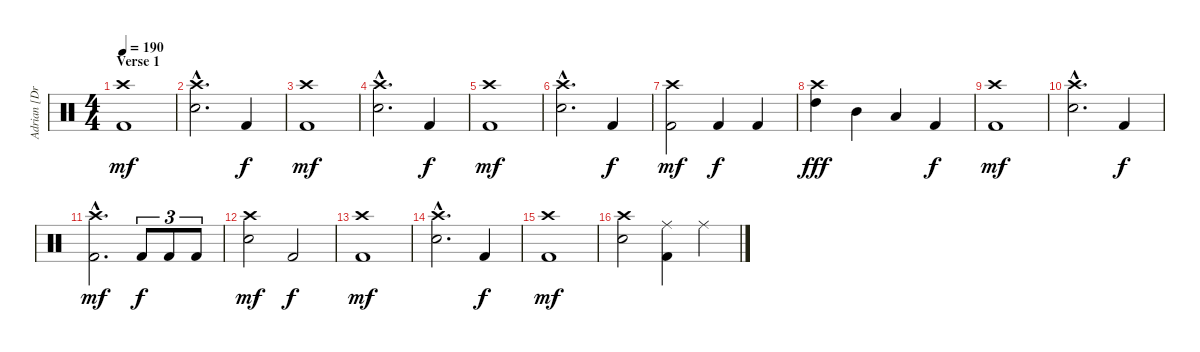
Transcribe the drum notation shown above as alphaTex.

\track ("Adrian [Drums]" "Adrian [Dr") {instrument percussion}
\staff {score}
\articulation defaults
\ts (4 4)
\section ("" "Verse 1")
\tempo 190
\clef neutral
\ks c
("Crash high (hit)" "Kick (hit) 2").1{dy mf} |
("Crash high (hit)"{hac} "Electric Snare (hit)"{hac}).2{d} "Kick (hit) 2".4{dy f} |
("Crash high (hit)" "Kick (hit) 2").1{dy mf} |
("Crash high (hit)"{hac} "Electric Snare (hit)"{hac}).2{d} "Kick (hit) 2".4{dy f} |
("Crash high (hit)" "Kick (hit) 2").1{dy mf} |
("Crash high (hit)"{hac} "Electric Snare (hit)"{hac}).2{d} "Kick (hit) 2".4{dy f} |
("Crash high (hit)" "Kick (hit) 2").2{dy mf} "Kick (hit) 2".4{dy f} "Kick (hit) 2".4 |
("Crash high (hit)" "High Tom (hit)").4{dy fff} "Mid Tom (hit)".4 "Low Tom (hit)".4 "Kick (hit) 2".4{dy f} |
("Crash high (hit)" "Kick (hit) 2").1{dy mf} |
("Crash high (hit)"{hac} "Electric Snare (hit)"{hac}).2{d} "Kick (hit) 2".4{dy f} |
("Crash high (hit)"{hac} "Kick (hit) 2"{hac}).2{d dy mf} "Kick (hit) 2".8{tu (3 2) dy f} "Kick (hit) 2".8{tu (3 2)} "Kick (hit) 2".8{tu (3 2)} |
("Crash high (hit)" "Electric Snare (hit)").2{dy mf} "Kick (hit) 2".2{dy f} |
("Crash high (hit)" "Kick (hit) 2").1{dy mf} |
("Crash high (hit)"{hac} "Electric Snare (hit)"{hac}).2{d} "Kick (hit) 2".4{dy f} |
("Crash high (hit)" "Kick (hit) 2").1{dy mf} |
("Crash high (hit)" "Electric Snare (hit)").2 ("Ride (middle)" "Kick (hit) 2").4 "Ride (middle)".4
